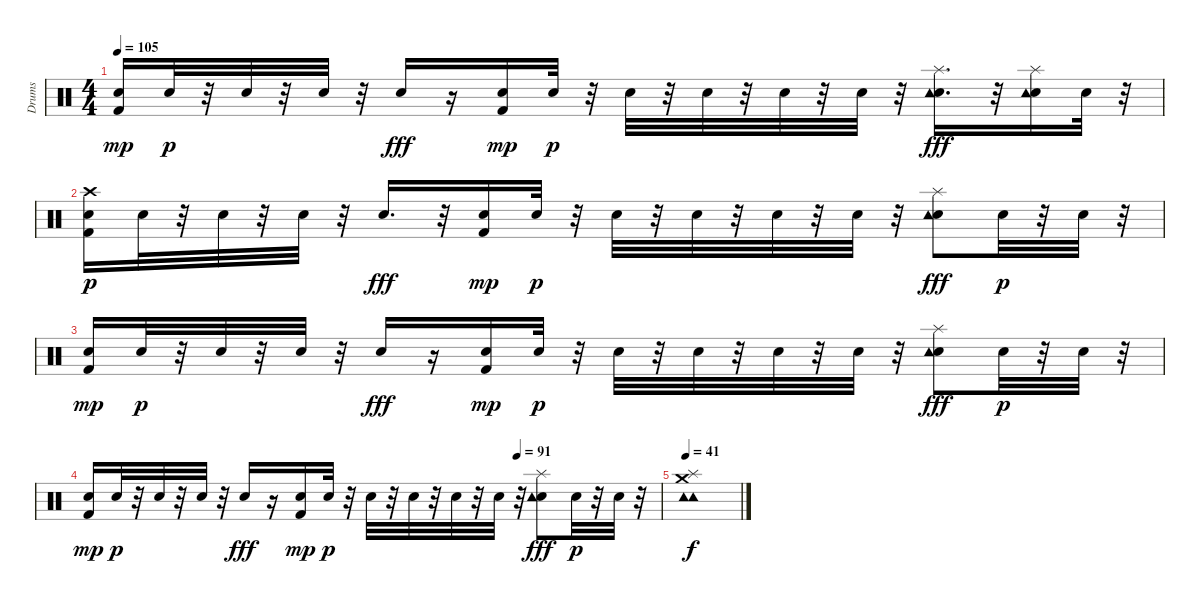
\track ("Drums" "Drums") {instrument percussion}
\staff {score}
\articulation defaults
\ts (4 4)
\tempo 105
\clef neutral
\ks c
("Snare (hit) 2" "Kick (hit) 2").16{dy mp} "Snare (hit) 2".32{dy p} r.32 "Snare (hit) 2".32 r.32 "Snare (hit) 2".32 r.32 "Snare (hit) 2".16{dy fff} r.16 ("Snare (hit) 2" "Kick (hit) 2").16{dy mp} "Snare (hit) 2".32{dy p} r.32 "Snare (hit) 2".32 r.32 "Snare (hit) 2".32 r.32 "Snare (hit) 2".32 r.32 "Snare (hit) 2".32 r.32 ("Snare (hit) 2" "Splash (hit)" "Tambourine (hit)").16{d dy fff} r.32 ("Snare (hit) 2" "Splash (hit)" "Tambourine (hit)").16 "Snare (hit) 2".32 r.32 |
("Crash high (hit)" "Kick (hit) 2" "Snare (hit) 2").16{dy p} "Snare (hit) 2".32 r.32 "Snare (hit) 2".32 r.32 "Snare (hit) 2".32 r.32 "Snare (hit) 2".16{d dy fff} r.32 ("Snare (hit) 2" "Kick (hit) 2").16{dy mp} "Snare (hit) 2".32{dy p} r.32 "Snare (hit) 2".32 r.32 "Snare (hit) 2".32 r.32 "Snare (hit) 2".32 r.32 "Snare (hit) 2".32 r.32 ("Snare (hit) 2" "Splash (hit)" "Tambourine (hit)").8{dy fff} "Snare (hit) 2".32{dy p} r.32 "Snare (hit) 2".32 r.32 |
("Snare (hit) 2" "Kick (hit) 2").16{dy mp} "Snare (hit) 2".32{dy p} r.32 "Snare (hit) 2".32 r.32 "Snare (hit) 2".32 r.32 "Snare (hit) 2".16{dy fff} r.16 ("Snare (hit) 2" "Kick (hit) 2").16{dy mp} "Snare (hit) 2".32{dy p} r.32 "Snare (hit) 2".32 r.32 "Snare (hit) 2".32 r.32 "Snare (hit) 2".32 r.32 "Snare (hit) 2".32 r.32 ("Snare (hit) 2" "Splash (hit)" "Tambourine (hit)").8{dy fff} "Snare (hit) 2".32{dy p} r.32 "Snare (hit) 2".32 r.32 |
\tempo (91 0.75)
("Snare (hit) 2" "Kick (hit) 2").16{dy mp} "Snare (hit) 2".32{dy p} r.32 "Snare (hit) 2".32 r.32 "Snare (hit) 2".32 r.32 "Snare (hit) 2".16{dy fff} r.16 ("Snare (hit) 2" "Kick (hit) 2").16{dy mp} "Snare (hit) 2".32{dy p} r.32 "Snare (hit) 2".32 r.32 "Snare (hit) 2".32 r.32 "Snare (hit) 2".32 r.32 "Snare (hit) 2".32 r.32 ("Snare (hit) 2" "Splash (hit)" "Tambourine (hit)").8{dy fff} "Snare (hit) 2".32{dy p} r.32 "Snare (hit) 2".32 r.32 |
\tempo 41
("Crash medium (hit)" "Tambourine (hit)" "Splash (hit)" "Tambourine (hit)").1{dy f}
